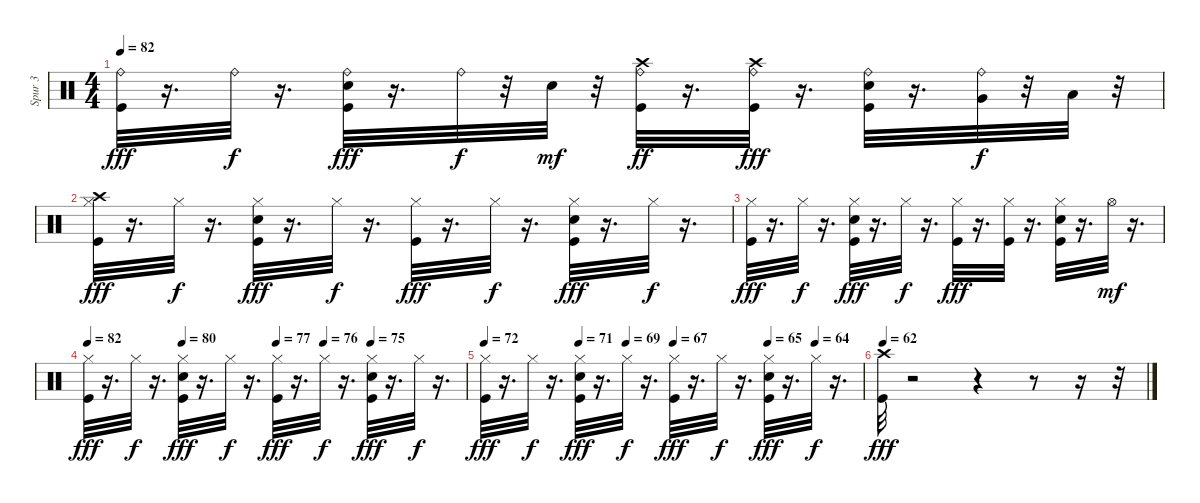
\track ("Spur 3" "Spur 3") {instrument percussion}
\staff {score}
\articulation defaults
\ts (4 4)
\tempo 82
\clef neutral
\ks c
("Ride (bell)" "Kick (hit)").32{dy fff} r.16{d} "Ride (bell)".32{dy f} r.16{d} ("Snare (hit) 2" "Kick (hit)" "Ride (bell)").32{dy fff} r.16{d} "Ride (bell)".32{dy f} r.32 "Snare (hit) 2".32{dy mf} r.32 ("Ride (bell)" "Kick (hit)" "Crash high (hit)").32{dy ff} r.16{d} ("Kick (hit)" "Crash high (hit)" "Ride (bell)").32{dy fff} r.16{d} ("Kick (hit)" "Snare (hit) 2" "Ride (bell)").32 r.16{d} ("Very Low Tom (hit)" "Ride (bell)").32{dy f} r.32 "Low Floor Tom (hit)".32 r.32 |
("Hi-Hat (closed)" "Crash high (hit)" "Kick (hit)").32{dy fff} r.16{d} "Hi-Hat (closed)".32{dy f} r.16{d} ("Hi-Hat (closed)" "Snare (hit) 2" "Kick (hit)").32{dy fff} r.16{d} "Hi-Hat (closed)".32{dy f} r.16{d} ("Hi-Hat (closed)" "Kick (hit)").32{dy fff} r.16{d} "Hi-Hat (closed)".32{dy f} r.16{d} ("Hi-Hat (closed)" "Snare (hit) 2" "Kick (hit)").32{dy fff} r.16{d} "Hi-Hat (closed)".32{dy f} r.16{d} |
("Kick (hit)" "Hi-Hat (closed)").32{dy fff} r.16{d} "Hi-Hat (closed)".32{dy f} r.16{d} ("Snare (hit) 2" "Kick (hit)" "Hi-Hat (closed)").32{dy fff} r.16{d} "Hi-Hat (closed)".32{dy f} r.16{d} ("Kick (hit)" "Hi-Hat (closed)").32{dy fff} r.16{d} ("Kick (hit)" "Hi-Hat (closed)").32 r.16{d} ("Snare (hit) 2" "Kick (hit)" "Hi-Hat (closed)").32 r.16{d} "Hi-Hat (open)".32{dy mf} r.16{d} |
\tempo 82
\tempo (80 0.25)
\tempo (77 0.5)
\tempo (76 0.625)
\tempo (75 0.75)
("Hi-Hat (closed)" "Kick (hit)").32{dy fff} r.16{d} "Hi-Hat (closed)".32{dy f} r.16{d} ("Hi-Hat (closed)" "Snare (hit) 2" "Kick (hit)").32{dy fff} r.16{d} "Hi-Hat (closed)".32{dy f} r.16{d} ("Hi-Hat (closed)" "Kick (hit)").32{dy fff} r.16{d} "Hi-Hat (closed)".32{dy f} r.16{d} ("Hi-Hat (closed)" "Snare (hit) 2" "Kick (hit)").32{dy fff} r.16{d} "Hi-Hat (closed)".32{dy f} r.16{d} |
\tempo 72
\tempo (71 0.25)
\tempo (69 0.375)
\tempo (67 0.5)
\tempo (65 0.75)
\tempo (64 0.875)
("Kick (hit)" "Hi-Hat (closed)").32{dy fff} r.16{d} "Hi-Hat (closed)".32{dy f} r.16{d} ("Snare (hit) 2" "Kick (hit)" "Hi-Hat (closed)").32{dy fff} r.16{d} "Hi-Hat (closed)".32{dy f} r.16{d} ("Kick (hit)" "Hi-Hat (closed)").32{dy fff} r.16{d} "Hi-Hat (closed)".32{dy f} r.16{d} ("Snare (hit) 2" "Kick (hit)" "Hi-Hat (closed)").32{dy fff} r.16{d} "Hi-Hat (closed)".32{dy f} r.16{d} |
\tempo 62
("Crash high (hit)" "Kick (hit)").32{dy fff} r.2 r.4 r.8 r.16 r.32
